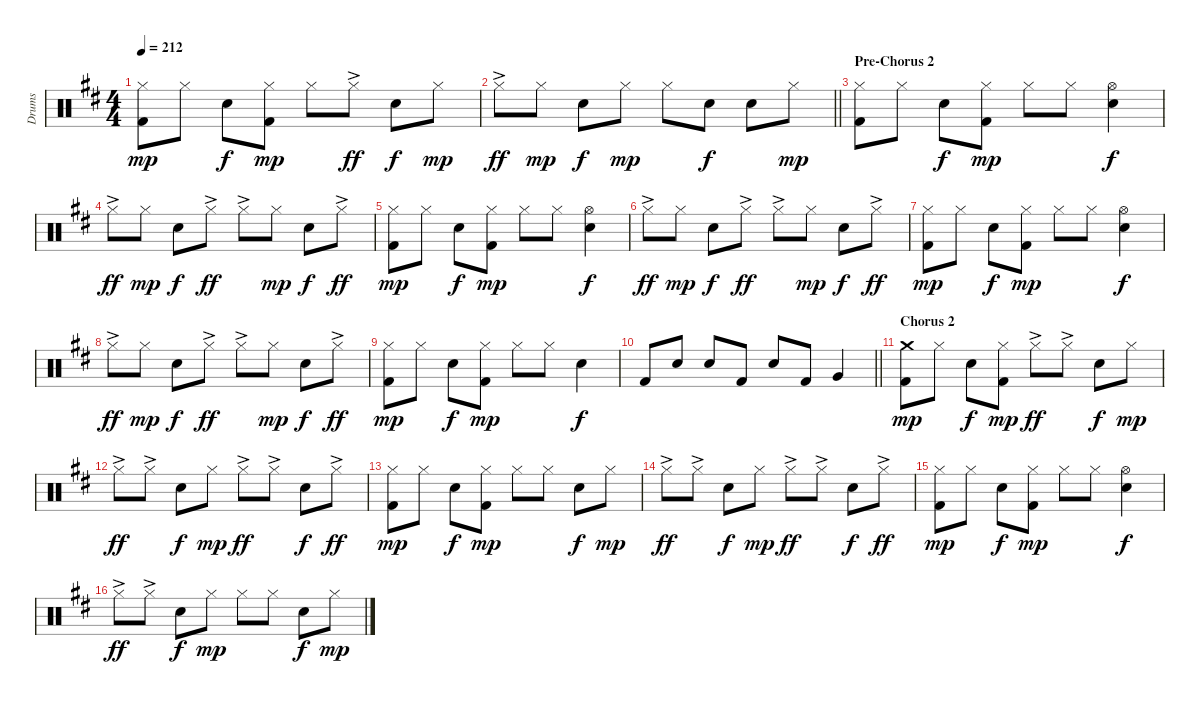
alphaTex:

\track ("Drums" "Drums") {instrument percussion}
\staff {score}
\articulation defaults
\ts (4 4)
\tempo 212
\clef neutral
\ks d
("Hi-Hat (closed)" "Kick (hit) 2").8{dy mp} "Hi-Hat (closed)".8 "Electric Snare (hit)".8{dy f} ("Hi-Hat (closed)" "Kick (hit) 2").8{dy mp} "Hi-Hat (closed)".8 "Hi-Hat (closed)"{ac}.8{dy ff} "Electric Snare (hit)".8{dy f} "Hi-Hat (closed)".8{dy mp} |
\barLineRight lightlight "Hi-Hat (closed)"{ac}.8{dy ff} "Hi-Hat (closed)".8{dy mp} "Electric Snare (hit)".8{dy f} "Hi-Hat (closed)".8{dy mp} "Hi-Hat (closed)".8 "Electric Snare (hit)".8{dy f} "Electric Snare (hit)".8 "Hi-Hat (closed)".8{dy mp}
|
\section ("" "Pre-Chorus 2")
("Hi-Hat (closed)" "Kick (hit) 2").8 "Hi-Hat (closed)".8 "Electric Snare (hit)".8{dy f} ("Hi-Hat (closed)" "Kick (hit) 2").8{dy mp} "Hi-Hat (closed)".8 "Hi-Hat (closed)".8 ("Hi-Hat (open)" "Electric Snare (hit)").4{dy f} |
"Hi-Hat (closed)"{ac}.8{dy ff} "Hi-Hat (closed)".8{dy mp} "Electric Snare (hit)".8{dy f} "Hi-Hat (closed)"{ac}.8{dy ff} "Hi-Hat (closed)"{ac}.8 "Hi-Hat (closed)".8{dy mp} "Electric Snare (hit)".8{dy f} "Hi-Hat (closed)"{ac}.8{dy ff} |
("Hi-Hat (closed)" "Kick (hit) 2").8{dy mp} "Hi-Hat (closed)".8 "Electric Snare (hit)".8{dy f} ("Hi-Hat (closed)" "Kick (hit) 2").8{dy mp} "Hi-Hat (closed)".8 "Hi-Hat (closed)".8 ("Hi-Hat (open)" "Electric Snare (hit)").4{dy f} |
"Hi-Hat (closed)"{ac}.8{dy ff} "Hi-Hat (closed)".8{dy mp} "Electric Snare (hit)".8{dy f} "Hi-Hat (closed)"{ac}.8{dy ff} "Hi-Hat (closed)"{ac}.8 "Hi-Hat (closed)".8{dy mp} "Electric Snare (hit)".8{dy f} "Hi-Hat (closed)"{ac}.8{dy ff} |
("Hi-Hat (closed)" "Kick (hit) 2").8{dy mp} "Hi-Hat (closed)".8 "Electric Snare (hit)".8{dy f} ("Hi-Hat (closed)" "Kick (hit) 2").8{dy mp} "Hi-Hat (closed)".8 "Hi-Hat (closed)".8 ("Hi-Hat (open)" "Electric Snare (hit)").4{dy f} |
"Hi-Hat (closed)"{ac}.8{dy ff} "Hi-Hat (closed)".8{dy mp} "Electric Snare (hit)".8{dy f} "Hi-Hat (closed)"{ac}.8{dy ff} "Hi-Hat (closed)"{ac}.8 "Hi-Hat (closed)".8{dy mp} "Electric Snare (hit)".8{dy f} "Hi-Hat (closed)"{ac}.8{dy ff} |
("Hi-Hat (closed)" "Kick (hit) 2").8{dy mp} "Hi-Hat (closed)".8 "Electric Snare (hit)".8{dy f} ("Hi-Hat (closed)" "Kick (hit) 2").8{dy mp} "Hi-Hat (closed)".8 "Hi-Hat (closed)".8 "Electric Snare (hit)".4{dy f} |
\barLineRight lightlight "Kick (hit) 2".8 "Electric Snare (hit)".8 "Electric Snare (hit)".8 "Kick (hit) 2".8 "Electric Snare (hit)".8 "Kick (hit) 2".8 "Very Low Tom (hit)".4
|
\section ("" "Chorus 2")
("Crash medium (hit)" "Kick (hit) 2").8{dy mp} "Hi-Hat (closed)".8 "Electric Snare (hit)".8{dy f} ("Hi-Hat (closed)" "Kick (hit) 2").8{dy mp} "Hi-Hat (closed)"{ac}.8{dy ff} "Hi-Hat (closed)"{ac}.8 "Electric Snare (hit)".8{dy f} "Hi-Hat (closed)".8{dy mp} |
"Hi-Hat (closed)"{ac}.8{dy ff} "Hi-Hat (closed)"{ac}.8 "Electric Snare (hit)".8{dy f} "Hi-Hat (closed)".8{dy mp} "Hi-Hat (closed)"{ac}.8{dy ff} "Hi-Hat (closed)"{ac}.8 "Electric Snare (hit)".8{dy f} "Hi-Hat (closed)"{ac}.8{dy ff} |
("Hi-Hat (closed)" "Kick (hit) 2").8{dy mp} "Hi-Hat (closed)".8 "Electric Snare (hit)".8{dy f} ("Hi-Hat (closed)" "Kick (hit) 2").8{dy mp} "Hi-Hat (closed)".8 "Hi-Hat (closed)".8 "Electric Snare (hit)".8{dy f} "Hi-Hat (closed)".8{dy mp} |
"Hi-Hat (closed)"{ac}.8{dy ff} "Hi-Hat (closed)"{ac}.8 "Electric Snare (hit)".8{dy f} "Hi-Hat (closed)".8{dy mp} "Hi-Hat (closed)"{ac}.8{dy ff} "Hi-Hat (closed)"{ac}.8 "Electric Snare (hit)".8{dy f} "Hi-Hat (closed)"{ac}.8{dy ff} |
("Hi-Hat (closed)" "Kick (hit) 2").8{dy mp} "Hi-Hat (closed)".8 "Electric Snare (hit)".8{dy f} ("Hi-Hat (closed)" "Kick (hit) 2").8{dy mp} "Hi-Hat (closed)".8 "Hi-Hat (closed)".8 ("Hi-Hat (open)" "Electric Snare (hit)").4{dy f} |
"Hi-Hat (closed)"{ac}.8{dy ff} "Hi-Hat (closed)"{ac}.8 "Electric Snare (hit)".8{dy f} "Hi-Hat (closed)".8{dy mp} "Hi-Hat (closed)".8 "Hi-Hat (closed)".8 "Electric Snare (hit)".8{dy f} "Hi-Hat (closed)".8{dy mp}
